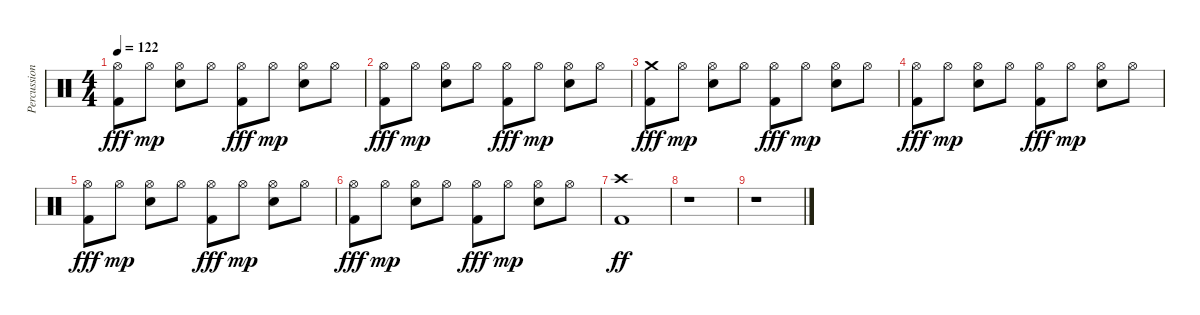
\track ("Percussion" "Percussion") {instrument percussion}
\staff {score}
\articulation defaults
\ts (4 4)
\tempo 122
\clef neutral
\ks c
("Hi-Hat (open)" "Kick (hit) 2").8{dy fff} "Hi-Hat (open)".8{dy mp} ("Hi-Hat (open)" "Electric Snare (hit)").8 "Hi-Hat (open)".8 ("Hi-Hat (open)" "Kick (hit) 2").8{dy fff} "Hi-Hat (open)".8{dy mp} ("Hi-Hat (open)" "Electric Snare (hit)").8 "Hi-Hat (open)".8 |
("Hi-Hat (open)" "Kick (hit) 2").8{dy fff} "Hi-Hat (open)".8{dy mp} ("Hi-Hat (open)" "Electric Snare (hit)").8 "Hi-Hat (open)".8 ("Hi-Hat (open)" "Kick (hit) 2").8{dy fff} "Hi-Hat (open)".8{dy mp} ("Hi-Hat (open)" "Electric Snare (hit)").8 "Hi-Hat (open)".8 |
("Crash medium (hit)" "Kick (hit) 2").8{dy fff} "Hi-Hat (open)".8{dy mp} ("Hi-Hat (open)" "Electric Snare (hit)").8 "Hi-Hat (open)".8 ("Hi-Hat (open)" "Kick (hit) 2").8{dy fff} "Hi-Hat (open)".8{dy mp} ("Hi-Hat (open)" "Electric Snare (hit)").8 "Hi-Hat (open)".8 |
("Hi-Hat (open)" "Kick (hit) 2").8{dy fff} "Hi-Hat (open)".8{dy mp} ("Hi-Hat (open)" "Electric Snare (hit)").8 "Hi-Hat (open)".8 ("Hi-Hat (open)" "Kick (hit) 2").8{dy fff} "Hi-Hat (open)".8{dy mp} ("Hi-Hat (open)" "Electric Snare (hit)").8 "Hi-Hat (open)".8 |
("Hi-Hat (open)" "Kick (hit) 2").8{dy fff} "Hi-Hat (open)".8{dy mp} ("Hi-Hat (open)" "Electric Snare (hit)").8 "Hi-Hat (open)".8 ("Hi-Hat (open)" "Kick (hit) 2").8{dy fff} "Hi-Hat (open)".8{dy mp} ("Hi-Hat (open)" "Electric Snare (hit)").8 "Hi-Hat (open)".8 |
("Hi-Hat (open)" "Kick (hit) 2").8{dy fff} "Hi-Hat (open)".8{dy mp} ("Hi-Hat (open)" "Electric Snare (hit)").8 "Hi-Hat (open)".8 ("Hi-Hat (open)" "Kick (hit) 2").8{dy fff} "Hi-Hat (open)".8{dy mp} ("Hi-Hat (open)" "Electric Snare (hit)").8 "Hi-Hat (open)".8 |
("Crash high (hit)" "Kick (hit) 2").1{dy ff} |
r.1 |
r.1
